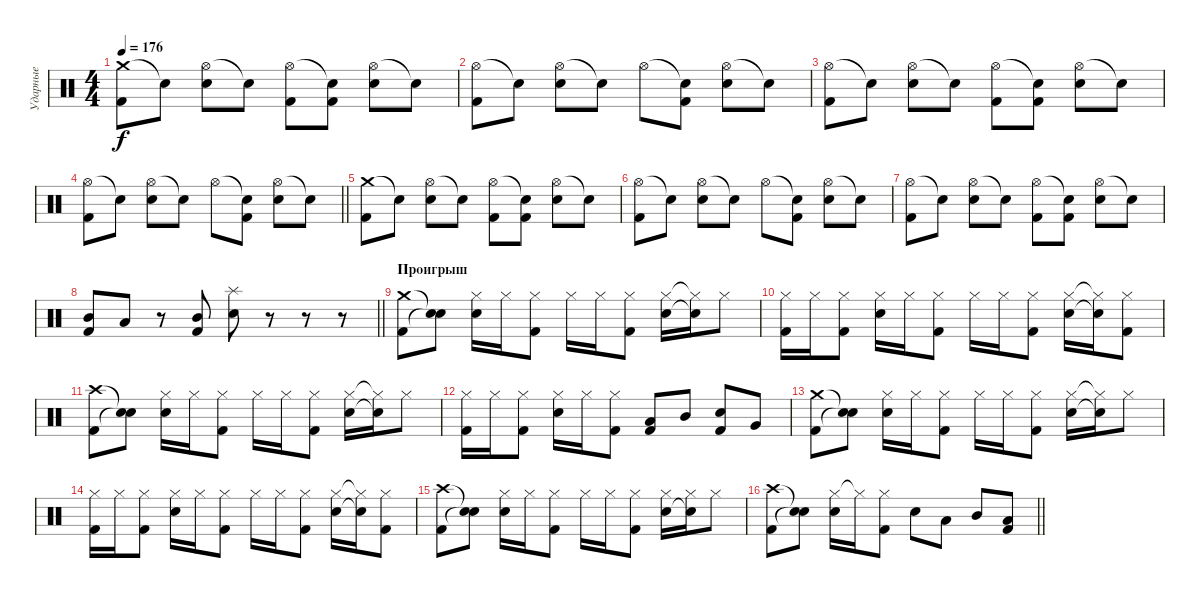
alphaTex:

\track ("Ударные" "Ударные") {instrument percussion}
\staff {score}
\articulation defaults
\ts (4 4)
\tempo 176
\clef neutral
\ks c
("Crash medium (hit)" "Kick (hit) 2").8{dy f} "Snare (hit)"{t}.8 ("Hi-Hat (open)" "Snare (hit) 2").8 "Snare (hit)"{t}.8 ("Hi-Hat (open)" "Kick (hit) 2").8 ("Snare (hit)"{t} "Kick (hit) 2").8 ("Hi-Hat (open)" "Snare (hit) 2").8 "Snare (hit)"{t}.8 |
("Hi-Hat (open)" "Kick (hit) 2").8 "Snare (hit)"{t}.8 ("Hi-Hat (open)" "Snare (hit) 2").8 "Snare (hit)"{t}.8 "Hi-Hat (open)".8 ("Snare (hit)"{t} "Kick (hit) 2").8 ("Hi-Hat (open)" "Snare (hit) 2").8 "Snare (hit)"{t}.8 |
("Hi-Hat (open)" "Kick (hit) 2").8 "Snare (hit)"{t}.8 ("Hi-Hat (open)" "Snare (hit) 2").8 "Snare (hit)"{t}.8 ("Hi-Hat (open)" "Kick (hit) 2").8 ("Snare (hit)"{t} "Kick (hit) 2").8 ("Hi-Hat (open)" "Snare (hit) 2").8 "Snare (hit)"{t}.8 |
\barLineRight lightlight
("Hi-Hat (open)" "Kick (hit) 2").8 "Snare (hit)"{t}.8 ("Hi-Hat (open)" "Snare (hit) 2").8 "Snare (hit)"{t}.8 "Hi-Hat (open)".8 ("Snare (hit)"{t} "Kick (hit) 2").8 ("Hi-Hat (open)" "Snare (hit) 2").8 "Snare (hit)"{t}.8 |
("Crash medium (hit)" "Kick (hit) 2").8 "Snare (hit)"{t}.8 ("Hi-Hat (open)" "Snare (hit) 2").8 "Snare (hit)"{t}.8 ("Hi-Hat (open)" "Kick (hit) 2").8 ("Snare (hit)"{t} "Kick (hit) 2").8 ("Hi-Hat (open)" "Snare (hit) 2").8 "Snare (hit)"{t}.8 |
("Hi-Hat (open)" "Kick (hit) 2").8 "Snare (hit)"{t}.8 ("Hi-Hat (open)" "Snare (hit) 2").8 "Snare (hit)"{t}.8 "Hi-Hat (open)".8 ("Snare (hit)"{t} "Kick (hit) 2").8 ("Hi-Hat (open)" "Snare (hit) 2").8 "Snare (hit)"{t}.8 |
("Hi-Hat (open)" "Kick (hit) 2").8 "Snare (hit)"{t}.8 ("Hi-Hat (open)" "Snare (hit) 2").8 "Snare (hit)"{t}.8 ("Hi-Hat (open)" "Kick (hit) 2").8 ("Snare (hit)"{t} "Kick (hit) 2").8 ("Hi-Hat (open)" "Snare (hit) 2").8 "Snare (hit)"{t}.8 |
\barLineRight lightlight
("Mid Tom (hit)" "Kick (hit) 2").8 "Low Tom (hit)".8 r.8 ("Mid Tom (hit)" "Kick (hit) 2").8 ("Splash (hit)" "Snare (hit) 2").8 r.8 r.8 r.8 |
\section ("" "Проигрыш")
("Crash medium (hit)" "Kick (hit) 2").8 ("Snare (hit)"{t} "Snare (hit)"{t}).8 ("Hi-Hat (closed)" "Snare (hit) 2").16 "Hi-Hat (closed)".16 ("Hi-Hat (closed)" "Kick (hit) 2").8 "Hi-Hat (closed)".16 "Hi-Hat (closed)".16 ("Hi-Hat (closed)" "Kick (hit) 2").8 ("Hi-Hat (closed)" "Snare (hit) 2").16 ("Hi-Hat (closed)"{t} "Snare (hit)"{t}).16 "Hi-Hat (closed)".8 |
("Hi-Hat (closed)" "Kick (hit) 2").16 "Hi-Hat (closed)".16 ("Hi-Hat (closed)" "Kick (hit) 2").8 ("Hi-Hat (closed)" "Snare (hit) 2").16 "Hi-Hat (closed)".16 ("Hi-Hat (closed)" "Kick (hit) 2").8 "Hi-Hat (closed)".16 "Hi-Hat (closed)".16 ("Hi-Hat (closed)" "Kick (hit) 2").8 ("Hi-Hat (closed)" "Snare (hit) 2").16 ("Hi-Hat (closed)"{t} "Snare (hit)"{t}).16 ("Hi-Hat (closed)" "Kick (hit) 2").8 |
("Crash high (hit)" "Kick (hit) 2").8 ("Snare (hit)"{t} "Snare (hit)"{t}).8 ("Hi-Hat (closed)" "Snare (hit) 2").16 "Hi-Hat (closed)".16 ("Hi-Hat (closed)" "Kick (hit) 2").8 "Hi-Hat (closed)".16 "Hi-Hat (closed)".16 ("Hi-Hat (closed)" "Kick (hit) 2").8 ("Hi-Hat (closed)" "Snare (hit) 2").16 ("Hi-Hat (closed)"{t} "Snare (hit)"{t}).16 "Hi-Hat (closed)".8 |
("Hi-Hat (closed)" "Kick (hit) 2").16 "Hi-Hat (closed)".16 ("Hi-Hat (closed)" "Kick (hit) 2").8 ("Hi-Hat (closed)" "Snare (hit) 2").16 "Hi-Hat (closed)".16 ("Hi-Hat (closed)" "Kick (hit) 2").8 ("Low Floor Tom (hit)" "Kick (hit) 2").8 "Mid Tom (hit)".8 ("Snare (hit) 2" "Kick (hit) 2").8 "Very Low Tom (hit)".8 |
("Crash medium (hit)" "Kick (hit) 2").8 ("Snare (hit)"{t} "Snare (hit)"{t}).8 ("Hi-Hat (closed)" "Snare (hit) 2").16 "Hi-Hat (closed)".16 ("Hi-Hat (closed)" "Kick (hit) 2").8 "Hi-Hat (closed)".16 "Hi-Hat (closed)".16 ("Hi-Hat (closed)" "Kick (hit) 2").8 ("Hi-Hat (closed)" "Snare (hit) 2").16 ("Hi-Hat (closed)"{t} "Snare (hit)"{t}).16 "Hi-Hat (closed)".8 |
("Hi-Hat (closed)" "Kick (hit) 2").16 "Hi-Hat (closed)".16 ("Hi-Hat (closed)" "Kick (hit) 2").8 ("Hi-Hat (closed)" "Snare (hit) 2").16 "Hi-Hat (closed)".16 ("Hi-Hat (closed)" "Kick (hit) 2").8 "Hi-Hat (closed)".16 "Hi-Hat (closed)".16 ("Hi-Hat (closed)" "Kick (hit) 2").8 ("Hi-Hat (closed)" "Snare (hit) 2").16 ("Hi-Hat (closed)"{t} "Snare (hit)"{t}).16 ("Hi-Hat (closed)" "Kick (hit) 2").8 |
("Crash high (hit)" "Kick (hit) 2").8 ("Snare (hit)"{t} "Snare (hit)"{t}).8 ("Hi-Hat (closed)" "Snare (hit) 2").16 "Hi-Hat (closed)".16 ("Hi-Hat (closed)" "Kick (hit) 2").8 "Hi-Hat (closed)".16 "Hi-Hat (closed)".16 ("Hi-Hat (closed)" "Kick (hit) 2").8 ("Hi-Hat (closed)" "Snare (hit) 2").16 ("Hi-Hat (closed)" "Snare (hit)"{t}).16 "Hi-Hat (closed)".8 |
\barLineRight lightlight
("Crash high (hit)" "Kick (hit) 2").8 ("Snare (hit)"{t} "Snare (hit)"{t}).8 ("Hi-Hat (closed)" "Snare (hit) 2").16 "Hi-Hat (closed)"{t}.16 ("Hi-Hat (closed)" "Kick (hit) 2").8 "Snare (hit) 2".8 "Low Tom (hit)".8 "Mid Tom (hit)".8 ("Low Tom (hit)" "Kick (hit) 2").8
